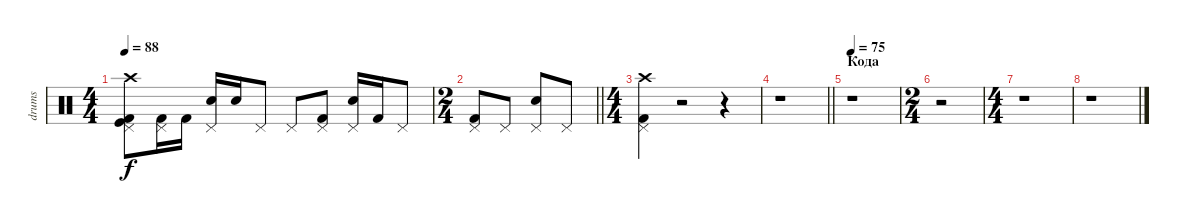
\track ("drums" "drums") {instrument percussion}
\staff {score}
\articulation defaults
\ts (4 4)
\tempo 88
\clef neutral
\ks c
("Crash high (hit)" "Kick (hit)" "Kick (hit) 2" "Pedal Hi-Hat (hit)").8{dy f} ("Kick (hit) 2" "Pedal Hi-Hat (hit)").16 "Kick (hit) 2".16 ("Snare (hit) 2" "Pedal Hi-Hat (hit)").16 "Snare (hit) 2".16 "Pedal Hi-Hat (hit)".8 "Pedal Hi-Hat (hit)".8 ("Kick (hit) 2" "Pedal Hi-Hat (hit)").8 ("Pedal Hi-Hat (hit)" "Snare (hit) 2").16 "Kick (hit) 2".16 "Pedal Hi-Hat (hit)".8 |
\ts (2 4)
\barLineRight lightlight
("Pedal Hi-Hat (hit)" "Kick (hit) 2").8 "Pedal Hi-Hat (hit)".8 ("Snare (hit) 2" "Pedal Hi-Hat (hit)").8 "Pedal Hi-Hat (hit)".8 |
\ts (4 4)
("Kick (hit) 2" "Crash high (hit)" "Pedal Hi-Hat (hit)").4 r.2 r.4 |
\barLineRight lightlight
r.1 |
\section ("" "Кода")
\tempo 75
r.1 |
\ts (2 4)
r.2 |
\ts (4 4)
r.1 |
r.1
